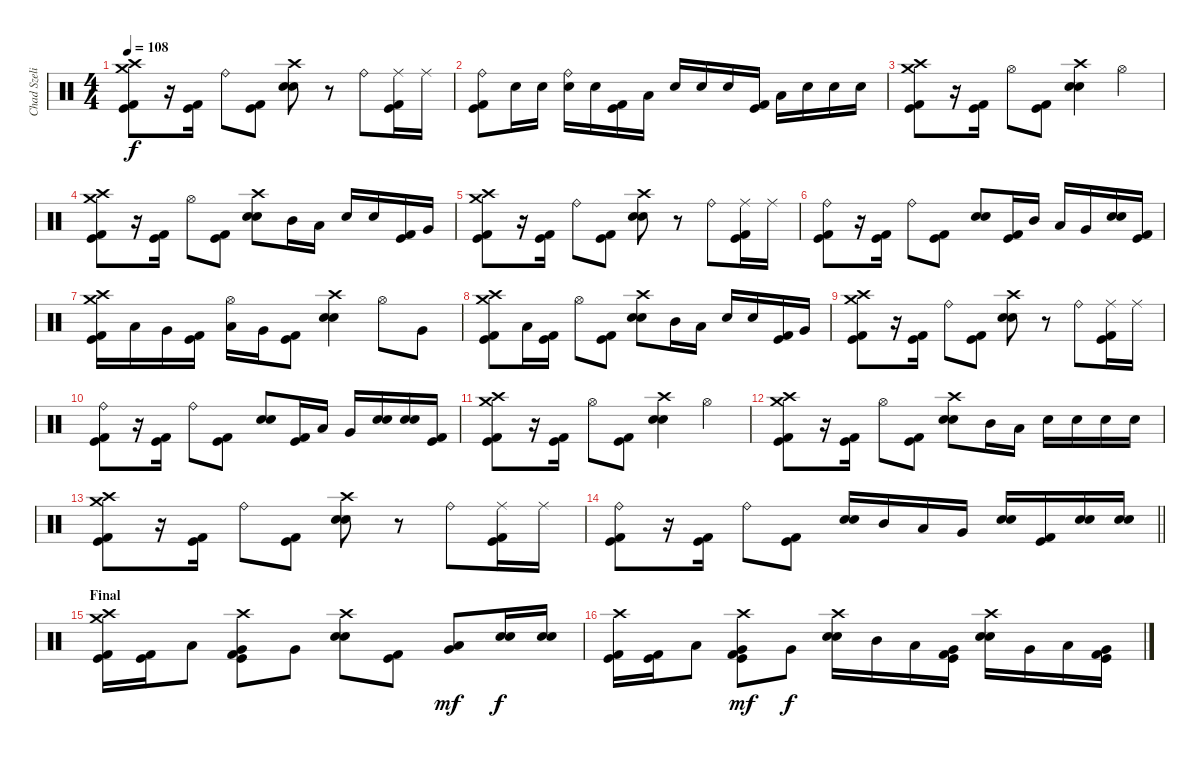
\track ("Chad Szeliga" "Chad Szeli") {instrument percussion}
\staff {score}
\articulation defaults
\ts (4 4)
\tempo 108
\clef neutral
\ks c
("Crash high (hit)" "Kick (hit) 2" "Kick (hit)" "Crash medium (hit)").8{dy f} r.16 ("Kick (hit) 2" "Kick (hit)").16{beam Down} "Ride (bell)".8 ("Kick (hit) 2" "Kick (hit)").8 ("Crash high (hit)" "Snare (hit) 2" "Snare (hit) 2").8 r.8 "Ride (bell)".8 ("Ride (middle)" "Kick (hit) 2" "Kick (hit)").16 "Ride (middle)".16 |
("Ride (bell)" "Kick (hit) 2" "Kick (hit)").8 "Snare (hit) 2".16 "Snare (hit) 2".16 ("Ride (bell)" "Snare (hit) 2").16 "Snare (hit) 2".16 ("Kick (hit) 2" "Kick (hit)").16 "Low Tom (hit)".16 "Snare (hit) 2".16 "Snare (hit) 2".16 "Snare (hit) 2".16 ("Kick (hit) 2" "Kick (hit)").16 "Low Tom (hit)".16 "Snare (hit) 2".16 "Snare (hit) 2".16 "Snare (hit) 2".16 |
("Crash high (hit)" "Kick (hit) 2" "Kick (hit)" "Crash medium (hit)").8 r.16 ("Kick (hit) 2" "Kick (hit)").16{beam Down} "Hi-Hat (open)".8 ("Kick (hit) 2" "Kick (hit)").8 ("Crash high (hit)" "Snare (hit) 2" "Snare (hit) 2").4 "Hi-Hat (open)".4 |
("Crash high (hit)" "Kick (hit) 2" "Kick (hit)" "Crash medium (hit)").8 r.16 ("Kick (hit) 2" "Kick (hit)").16{beam Down} "Hi-Hat (open)".8 ("Kick (hit) 2" "Kick (hit)").8 ("Crash high (hit)" "Snare (hit) 2" "Snare (hit) 2").8 "Mid Tom (hit)".16 "Low Tom (hit)".16 "Snare (hit) 2".16 "Snare (hit) 2".16 ("Kick (hit) 2" "Kick (hit)").16 "Very Low Tom (hit)".16 |
("Crash high (hit)" "Kick (hit) 2" "Kick (hit)" "Crash medium (hit)").8 r.16 ("Kick (hit) 2" "Kick (hit)").16{beam Down} "Ride (bell)".8 ("Kick (hit) 2" "Kick (hit)").8 ("Crash high (hit)" "Snare (hit) 2" "Snare (hit) 2").8 r.8 "Ride (bell)".8 ("Ride (middle)" "Kick (hit) 2" "Kick (hit)").16 "Ride (middle)".16 |
("Ride (bell)" "Kick (hit) 2" "Kick (hit)").8 r.16 ("Kick (hit) 2" "Kick (hit)").16{beam Down} "Ride (bell)".8 ("Kick (hit) 2" "Kick (hit)").8 ("Snare (hit) 2" "Snare (hit) 2").8 ("Kick (hit) 2" "Kick (hit)").16 "Mid Tom (hit)".16 "Low Tom (hit)".16 "Very Low Tom (hit)".16 ("Snare (hit) 2" "Snare (hit) 2").16 ("Kick (hit) 2" "Kick (hit)").16 |
("Crash high (hit)" "Kick (hit) 2" "Kick (hit)" "Crash medium (hit)").16 "Low Tom (hit)".16 "Very Low Tom (hit)".16 ("Kick (hit) 2" "Kick (hit)").16 ("Low Tom (hit)" "Hi-Hat (open)").16 "Very Low Tom (hit)".16 ("Kick (hit) 2" "Kick (hit)").8 ("Crash high (hit)" "Snare (hit) 2" "Snare (hit) 2").4 "Hi-Hat (open)".8 "Very Low Tom (hit)".8 |
("Crash high (hit)" "Kick (hit) 2" "Kick (hit)" "Crash medium (hit)").8 "Low Tom (hit)".16 ("Kick (hit) 2" "Kick (hit)").16 "Hi-Hat (open)".8 ("Kick (hit) 2" "Kick (hit)").8 ("Crash high (hit)" "Snare (hit) 2" "Snare (hit) 2").8 "Mid Tom (hit)".16 "Low Tom (hit)".16 "Snare (hit) 2".16 "Snare (hit) 2".16 ("Kick (hit) 2" "Kick (hit)").16 "Very Low Tom (hit)".16 |
("Crash high (hit)" "Kick (hit) 2" "Kick (hit)" "Crash medium (hit)").8 r.16 ("Kick (hit) 2" "Kick (hit)").16{beam Down} "Ride (bell)".8 ("Kick (hit) 2" "Kick (hit)").8 ("Crash high (hit)" "Snare (hit) 2" "Snare (hit) 2").8 r.8 "Ride (bell)".8 ("Ride (middle)" "Kick (hit) 2" "Kick (hit)").16 "Ride (middle)".16 |
("Ride (bell)" "Kick (hit) 2" "Kick (hit)").8 r.16 ("Kick (hit) 2" "Kick (hit)").16{beam Down} "Ride (bell)".8 ("Kick (hit) 2" "Kick (hit)").8 ("Snare (hit) 2" "Snare (hit) 2").8 ("Kick (hit) 2" "Kick (hit)").16 "Low Tom (hit)".16 "Very Low Tom (hit)".16 ("Snare (hit) 2" "Snare (hit) 2").16 ("Snare (hit) 2" "Snare (hit) 2").16 ("Kick (hit) 2" "Kick (hit)").16 |
("Crash high (hit)" "Kick (hit) 2" "Kick (hit)" "Crash medium (hit)").8 r.16 ("Kick (hit) 2" "Kick (hit)").16{beam Down} "Hi-Hat (open)".8 ("Kick (hit) 2" "Kick (hit)").8 ("Crash high (hit)" "Snare (hit) 2" "Snare (hit) 2").4 "Hi-Hat (open)".4 |
("Crash high (hit)" "Kick (hit) 2" "Kick (hit)" "Crash medium (hit)").8 r.16 ("Kick (hit) 2" "Kick (hit)").16{beam Down} "Hi-Hat (open)".8 ("Kick (hit) 2" "Kick (hit)").8 ("Crash high (hit)" "Snare (hit) 2" "Snare (hit) 2").8 "Mid Tom (hit)".16 "Low Tom (hit)".16 "Snare (hit) 2".16 "Snare (hit) 2".16 "Snare (hit) 2".16 "Snare (hit) 2".16 |
("Crash high (hit)" "Kick (hit) 2" "Kick (hit)" "Crash medium (hit)").8 r.16 ("Kick (hit) 2" "Kick (hit)").16{beam Down} "Ride (bell)".8 ("Kick (hit) 2" "Kick (hit)").8 ("Crash high (hit)" "Snare (hit) 2" "Snare (hit) 2").8 r.8 "Ride (bell)".8 ("Ride (middle)" "Kick (hit) 2" "Kick (hit)").16 "Ride (middle)".16 |
\barLineRight lightlight
("Ride (bell)" "Kick (hit) 2" "Kick (hit)").8 r.16 ("Kick (hit) 2" "Kick (hit)").16{beam Down} "Ride (bell)".8 ("Kick (hit) 2" "Kick (hit)").8 ("Snare (hit) 2" "Snare (hit) 2").16 "Mid Tom (hit)".16 "Low Tom (hit)".16 "Very Low Tom (hit)".16 ("Snare (hit) 2" "Snare (hit) 2").16 ("Kick (hit) 2" "Kick (hit)").16 ("Snare (hit) 2" "Snare (hit) 2").16 ("Snare (hit) 2" "Snare (hit) 2").16 |
\section ("" "Final")
("Crash high (hit)" "Kick (hit) 2" "Kick (hit)" "Crash medium (hit)").16 ("Kick (hit) 2" "Kick (hit)").16 "Low Tom (hit)".8 ("Crash high (hit)" "Kick (hit) 2" "Kick (hit)" "Very Low Tom (hit)").8 "Very Low Tom (hit)".8 ("Crash high (hit)" "Snare (hit) 2" "Snare (hit) 2").8 ("Kick (hit) 2" "Kick (hit)").8 ("Very Low Tom (hit)" "Low Tom (hit)").8{dy mf} ("Snare (hit) 2" "Snare (hit) 2").16{dy f} ("Snare (hit) 2" "Snare (hit) 2").16 |
("Crash high (hit)" "Kick (hit) 2" "Kick (hit)").16 ("Kick (hit) 2" "Kick (hit)").16 "Low Tom (hit)".8 ("Crash high (hit)" "Kick (hit) 2" "Kick (hit)" "Very Low Tom (hit)").8{dy mf} "Very Low Tom (hit)".8{dy f} ("Crash high (hit)" "Snare (hit) 2" "Snare (hit) 2").16 "Mid Tom (hit)".16 "Low Tom (hit)".16 ("Kick (hit) 2" "Kick (hit)" "Very Low Tom (hit)").16 ("Crash high (hit)" "Snare (hit) 2" "Snare (hit) 2").16 "Very Low Tom (hit)".16 "Low Tom (hit)".16 ("Kick (hit) 2" "Kick (hit)" "Very Low Tom (hit)").16
